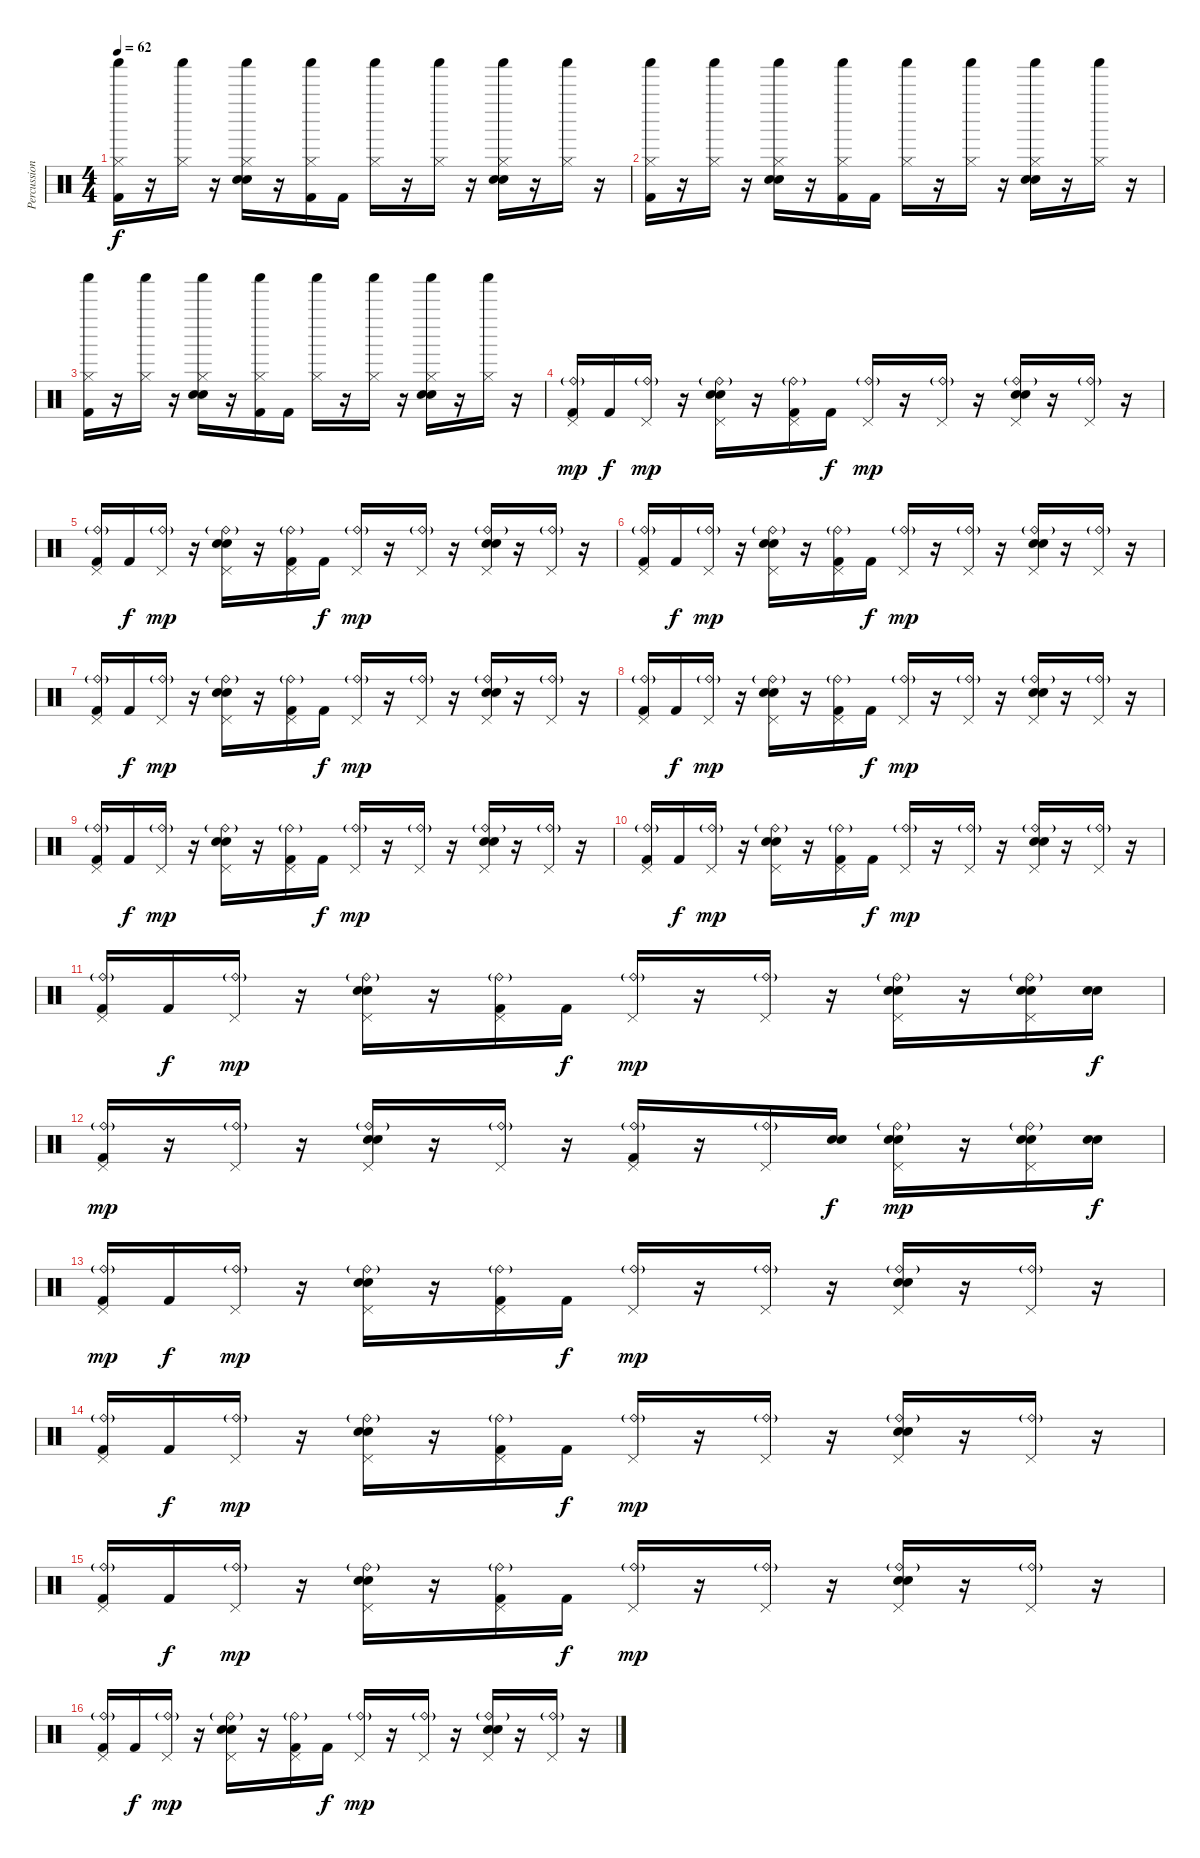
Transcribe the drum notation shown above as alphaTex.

\track ("Percussion" "Percussion") {instrument percussion}
\staff {score}
\articulation defaults
\ts (4 4)
\tempo 62
\clef neutral
\ks c
("Shaker (hit)" "Hi-Hat (closed)" "Kick (hit) 2").16{dy f} r.16 ("Shaker (hit)" "Hi-Hat (closed)").16 r.16 ("Shaker (hit)" "Hi-Hat (closed)" "Electric Snare (hit)" "Snare (hit) 2").16 r.16 ("Shaker (hit)" "Hi-Hat (closed)" "Kick (hit) 2").16 "Kick (hit) 2".16 ("Shaker (hit)" "Hi-Hat (closed)").16 r.16 ("Shaker (hit)" "Hi-Hat (closed)").16 r.16 ("Shaker (hit)" "Hi-Hat (closed)" "Electric Snare (hit)" "Snare (hit) 2").16 r.16 ("Shaker (hit)" "Hi-Hat (closed)").16 r.16 |
("Shaker (hit)" "Hi-Hat (closed)" "Kick (hit) 2").16 r.16 ("Shaker (hit)" "Hi-Hat (closed)").16 r.16 ("Shaker (hit)" "Hi-Hat (closed)" "Electric Snare (hit)" "Snare (hit) 2").16 r.16 ("Shaker (hit)" "Hi-Hat (closed)" "Kick (hit) 2").16 "Kick (hit) 2".16 ("Shaker (hit)" "Hi-Hat (closed)").16 r.16 ("Shaker (hit)" "Hi-Hat (closed)").16 r.16 ("Shaker (hit)" "Hi-Hat (closed)" "Electric Snare (hit)" "Snare (hit) 2").16 r.16 ("Shaker (hit)" "Hi-Hat (closed)").16 r.16 |
("Shaker (hit)" "Hi-Hat (closed)" "Kick (hit) 2").16 r.16 ("Shaker (hit)" "Hi-Hat (closed)").16 r.16 ("Shaker (hit)" "Hi-Hat (closed)" "Electric Snare (hit)" "Snare (hit) 2").16 r.16 ("Shaker (hit)" "Hi-Hat (closed)" "Kick (hit) 2").16 "Kick (hit) 2".16 ("Shaker (hit)" "Hi-Hat (closed)").16 r.16 ("Shaker (hit)" "Hi-Hat (closed)").16 r.16 ("Shaker (hit)" "Hi-Hat (closed)" "Electric Snare (hit)" "Snare (hit) 2").16 r.16 ("Shaker (hit)" "Hi-Hat (closed)").16 r.16 |
("Pedal Hi-Hat (hit)" "Ride (bell)"{g} "Kick (hit) 2").16{dy mp} "Kick (hit) 2".16{dy f} ("Pedal Hi-Hat (hit)" "Ride (bell)"{g}).16{dy mp} r.16 ("Pedal Hi-Hat (hit)" "Ride (bell)"{g} "Electric Snare (hit)" "Snare (hit) 2").16 r.16 ("Pedal Hi-Hat (hit)" "Ride (bell)"{g} "Kick (hit) 2").16 "Kick (hit) 2".16{dy f} ("Pedal Hi-Hat (hit)" "Ride (bell)"{g}).16{dy mp} r.16 ("Pedal Hi-Hat (hit)" "Ride (bell)"{g}).16 r.16 ("Pedal Hi-Hat (hit)" "Ride (bell)"{g} "Electric Snare (hit)" "Snare (hit) 2").16 r.16 ("Pedal Hi-Hat (hit)" "Ride (bell)"{g}).16 r.16 |
("Pedal Hi-Hat (hit)" "Ride (bell)"{g} "Kick (hit) 2").16 "Kick (hit) 2".16{dy f} ("Pedal Hi-Hat (hit)" "Ride (bell)"{g}).16{dy mp} r.16 ("Pedal Hi-Hat (hit)" "Ride (bell)"{g} "Electric Snare (hit)" "Snare (hit) 2").16 r.16 ("Pedal Hi-Hat (hit)" "Ride (bell)"{g} "Kick (hit) 2").16 "Kick (hit) 2".16{dy f} ("Pedal Hi-Hat (hit)" "Ride (bell)"{g}).16{dy mp} r.16 ("Pedal Hi-Hat (hit)" "Ride (bell)"{g}).16 r.16 ("Pedal Hi-Hat (hit)" "Ride (bell)"{g} "Electric Snare (hit)" "Snare (hit) 2").16 r.16 ("Pedal Hi-Hat (hit)" "Ride (bell)"{g}).16 r.16 |
("Pedal Hi-Hat (hit)" "Ride (bell)"{g} "Kick (hit) 2").16 "Kick (hit) 2".16{dy f} ("Pedal Hi-Hat (hit)" "Ride (bell)"{g}).16{dy mp} r.16 ("Pedal Hi-Hat (hit)" "Ride (bell)"{g} "Electric Snare (hit)" "Snare (hit) 2").16 r.16 ("Pedal Hi-Hat (hit)" "Ride (bell)"{g} "Kick (hit) 2").16 "Kick (hit) 2".16{dy f} ("Pedal Hi-Hat (hit)" "Ride (bell)"{g}).16{dy mp} r.16 ("Pedal Hi-Hat (hit)" "Ride (bell)"{g}).16 r.16 ("Pedal Hi-Hat (hit)" "Ride (bell)"{g} "Electric Snare (hit)" "Snare (hit) 2").16 r.16 ("Pedal Hi-Hat (hit)" "Ride (bell)"{g}).16 r.16 |
("Pedal Hi-Hat (hit)" "Ride (bell)"{g} "Kick (hit) 2").16 "Kick (hit) 2".16{dy f} ("Pedal Hi-Hat (hit)" "Ride (bell)"{g}).16{dy mp} r.16 ("Pedal Hi-Hat (hit)" "Ride (bell)"{g} "Electric Snare (hit)" "Snare (hit) 2").16 r.16 ("Pedal Hi-Hat (hit)" "Ride (bell)"{g} "Kick (hit) 2").16 "Kick (hit) 2".16{dy f} ("Pedal Hi-Hat (hit)" "Ride (bell)"{g}).16{dy mp} r.16 ("Pedal Hi-Hat (hit)" "Ride (bell)"{g}).16 r.16 ("Pedal Hi-Hat (hit)" "Ride (bell)"{g} "Electric Snare (hit)" "Snare (hit) 2").16 r.16 ("Pedal Hi-Hat (hit)" "Ride (bell)"{g}).16 r.16 |
("Pedal Hi-Hat (hit)" "Ride (bell)"{g} "Kick (hit) 2").16 "Kick (hit) 2".16{dy f} ("Pedal Hi-Hat (hit)" "Ride (bell)"{g}).16{dy mp} r.16 ("Pedal Hi-Hat (hit)" "Ride (bell)"{g} "Electric Snare (hit)" "Snare (hit) 2").16 r.16 ("Pedal Hi-Hat (hit)" "Ride (bell)"{g} "Kick (hit) 2").16 "Kick (hit) 2".16{dy f} ("Pedal Hi-Hat (hit)" "Ride (bell)"{g}).16{dy mp} r.16 ("Pedal Hi-Hat (hit)" "Ride (bell)"{g}).16 r.16 ("Pedal Hi-Hat (hit)" "Ride (bell)"{g} "Electric Snare (hit)" "Snare (hit) 2").16 r.16 ("Pedal Hi-Hat (hit)" "Ride (bell)"{g}).16 r.16 |
("Pedal Hi-Hat (hit)" "Ride (bell)"{g} "Kick (hit) 2").16 "Kick (hit) 2".16{dy f} ("Pedal Hi-Hat (hit)" "Ride (bell)"{g}).16{dy mp} r.16 ("Pedal Hi-Hat (hit)" "Ride (bell)"{g} "Electric Snare (hit)" "Snare (hit) 2").16 r.16 ("Pedal Hi-Hat (hit)" "Ride (bell)"{g} "Kick (hit) 2").16 "Kick (hit) 2".16{dy f} ("Pedal Hi-Hat (hit)" "Ride (bell)"{g}).16{dy mp} r.16 ("Pedal Hi-Hat (hit)" "Ride (bell)"{g}).16 r.16 ("Pedal Hi-Hat (hit)" "Ride (bell)"{g} "Electric Snare (hit)" "Snare (hit) 2").16 r.16 ("Pedal Hi-Hat (hit)" "Ride (bell)"{g}).16 r.16 |
("Pedal Hi-Hat (hit)" "Ride (bell)"{g} "Kick (hit) 2").16 "Kick (hit) 2".16{dy f} ("Pedal Hi-Hat (hit)" "Ride (bell)"{g}).16{dy mp} r.16 ("Pedal Hi-Hat (hit)" "Ride (bell)"{g} "Electric Snare (hit)" "Snare (hit) 2").16 r.16 ("Pedal Hi-Hat (hit)" "Ride (bell)"{g} "Kick (hit) 2").16 "Kick (hit) 2".16{dy f} ("Pedal Hi-Hat (hit)" "Ride (bell)"{g}).16{dy mp} r.16 ("Pedal Hi-Hat (hit)" "Ride (bell)"{g}).16 r.16 ("Pedal Hi-Hat (hit)" "Ride (bell)"{g} "Electric Snare (hit)" "Snare (hit) 2").16 r.16 ("Pedal Hi-Hat (hit)" "Ride (bell)"{g}).16 r.16 |
("Pedal Hi-Hat (hit)" "Ride (bell)"{g} "Kick (hit) 2").16 "Kick (hit) 2".16{dy f} ("Pedal Hi-Hat (hit)" "Ride (bell)"{g}).16{dy mp} r.16 ("Pedal Hi-Hat (hit)" "Ride (bell)"{g} "Electric Snare (hit)" "Snare (hit) 2").16 r.16 ("Pedal Hi-Hat (hit)" "Ride (bell)"{g} "Kick (hit) 2").16 "Kick (hit) 2".16{dy f} ("Pedal Hi-Hat (hit)" "Ride (bell)"{g}).16{dy mp} r.16 ("Pedal Hi-Hat (hit)" "Ride (bell)"{g}).16 r.16 ("Pedal Hi-Hat (hit)" "Ride (bell)"{g} "Electric Snare (hit)" "Snare (hit) 2").16 r.16 ("Pedal Hi-Hat (hit)" "Ride (bell)"{g} "Electric Snare (hit)" "Snare (hit) 2").16 ("Electric Snare (hit)" "Snare (hit) 2").16{dy f} |
("Pedal Hi-Hat (hit)" "Ride (bell)"{g} "Kick (hit) 2").16{dy mp} r.16 ("Pedal Hi-Hat (hit)" "Ride (bell)"{g}).16 r.16 ("Pedal Hi-Hat (hit)" "Ride (bell)"{g} "Electric Snare (hit)" "Snare (hit) 2").16 r.16 ("Pedal Hi-Hat (hit)" "Ride (bell)"{g}).16 r.16 ("Pedal Hi-Hat (hit)" "Ride (bell)"{g} "Kick (hit) 2").16 r.16 ("Pedal Hi-Hat (hit)" "Ride (bell)"{g}).16 ("Electric Snare (hit)" "Snare (hit) 2").16{dy f} ("Pedal Hi-Hat (hit)" "Ride (bell)"{g} "Electric Snare (hit)" "Snare (hit) 2").16{dy mp} r.16 ("Pedal Hi-Hat (hit)" "Ride (bell)"{g} "Electric Snare (hit)" "Snare (hit) 2").16 ("Electric Snare (hit)" "Snare (hit) 2").16{dy f} |
("Pedal Hi-Hat (hit)" "Ride (bell)"{g} "Kick (hit) 2").16{dy mp} "Kick (hit) 2".16{dy f} ("Pedal Hi-Hat (hit)" "Ride (bell)"{g}).16{dy mp} r.16 ("Pedal Hi-Hat (hit)" "Ride (bell)"{g} "Electric Snare (hit)" "Snare (hit) 2").16 r.16 ("Pedal Hi-Hat (hit)" "Ride (bell)"{g} "Kick (hit) 2").16 "Kick (hit) 2".16{dy f} ("Pedal Hi-Hat (hit)" "Ride (bell)"{g}).16{dy mp} r.16 ("Pedal Hi-Hat (hit)" "Ride (bell)"{g}).16 r.16 ("Pedal Hi-Hat (hit)" "Ride (bell)"{g} "Electric Snare (hit)" "Snare (hit) 2").16 r.16 ("Pedal Hi-Hat (hit)" "Ride (bell)"{g}).16 r.16 |
("Pedal Hi-Hat (hit)" "Ride (bell)"{g} "Kick (hit) 2").16 "Kick (hit) 2".16{dy f} ("Pedal Hi-Hat (hit)" "Ride (bell)"{g}).16{dy mp} r.16 ("Pedal Hi-Hat (hit)" "Ride (bell)"{g} "Electric Snare (hit)" "Snare (hit) 2").16 r.16 ("Pedal Hi-Hat (hit)" "Ride (bell)"{g} "Kick (hit) 2").16 "Kick (hit) 2".16{dy f} ("Pedal Hi-Hat (hit)" "Ride (bell)"{g}).16{dy mp} r.16 ("Pedal Hi-Hat (hit)" "Ride (bell)"{g}).16 r.16 ("Pedal Hi-Hat (hit)" "Ride (bell)"{g} "Electric Snare (hit)" "Snare (hit) 2").16 r.16 ("Pedal Hi-Hat (hit)" "Ride (bell)"{g}).16 r.16 |
("Pedal Hi-Hat (hit)" "Ride (bell)"{g} "Kick (hit) 2").16 "Kick (hit) 2".16{dy f} ("Pedal Hi-Hat (hit)" "Ride (bell)"{g}).16{dy mp} r.16 ("Pedal Hi-Hat (hit)" "Ride (bell)"{g} "Electric Snare (hit)" "Snare (hit) 2").16 r.16 ("Pedal Hi-Hat (hit)" "Ride (bell)"{g} "Kick (hit) 2").16 "Kick (hit) 2".16{dy f} ("Pedal Hi-Hat (hit)" "Ride (bell)"{g}).16{dy mp} r.16 ("Pedal Hi-Hat (hit)" "Ride (bell)"{g}).16 r.16 ("Pedal Hi-Hat (hit)" "Ride (bell)"{g} "Electric Snare (hit)" "Snare (hit) 2").16 r.16 ("Pedal Hi-Hat (hit)" "Ride (bell)"{g}).16 r.16 |
("Pedal Hi-Hat (hit)" "Ride (bell)"{g} "Kick (hit) 2").16 "Kick (hit) 2".16{dy f} ("Pedal Hi-Hat (hit)" "Ride (bell)"{g}).16{dy mp} r.16 ("Pedal Hi-Hat (hit)" "Ride (bell)"{g} "Electric Snare (hit)" "Snare (hit) 2").16 r.16 ("Pedal Hi-Hat (hit)" "Ride (bell)"{g} "Kick (hit) 2").16 "Kick (hit) 2".16{dy f} ("Pedal Hi-Hat (hit)" "Ride (bell)"{g}).16{dy mp} r.16 ("Pedal Hi-Hat (hit)" "Ride (bell)"{g}).16 r.16 ("Pedal Hi-Hat (hit)" "Ride (bell)"{g} "Electric Snare (hit)" "Snare (hit) 2").16 r.16 ("Pedal Hi-Hat (hit)" "Ride (bell)"{g}).16 r.16
